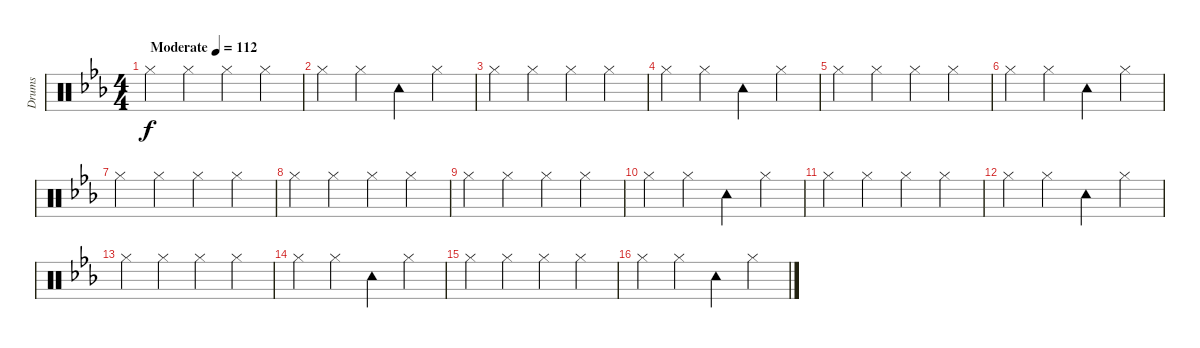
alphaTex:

\track ("Drums" "Drums") {instrument percussion}
\staff {score}
\articulation defaults
\ts (4 4)
\tempo (112 "Moderate")
\clef neutral
\ks eb "Hi-Hat (closed)".4{dy f} "Hi-Hat (closed)".4 "Hi-Hat (closed)".4 "Hi-Hat (closed)".4
|
"Hi-Hat (closed)".4 "Hi-Hat (closed)".4 "Tambourine (hit)".4 "Hi-Hat (closed)".4 |
"Hi-Hat (closed)".4 "Hi-Hat (closed)".4 "Hi-Hat (closed)".4 "Hi-Hat (closed)".4 |
"Hi-Hat (closed)".4 "Hi-Hat (closed)".4 "Tambourine (hit)".4 "Hi-Hat (closed)".4 |
"Hi-Hat (closed)".4 "Hi-Hat (closed)".4 "Hi-Hat (closed)".4 "Hi-Hat (closed)".4 |
"Hi-Hat (closed)".4 "Hi-Hat (closed)".4 "Tambourine (hit)".4 "Hi-Hat (closed)".4 |
"Hi-Hat (closed)".4 "Hi-Hat (closed)".4 "Hi-Hat (closed)".4 "Hi-Hat (closed)".4 |
"Hi-Hat (closed)".4 "Hi-Hat (closed)".4 "Hi-Hat (closed)".4 "Hi-Hat (closed)".4 |
"Hi-Hat (closed)".4 "Hi-Hat (closed)".4 "Hi-Hat (closed)".4 "Hi-Hat (closed)".4 |
"Hi-Hat (closed)".4 "Hi-Hat (closed)".4 "Tambourine (hit)".4 "Hi-Hat (closed)".4 |
"Hi-Hat (closed)".4 "Hi-Hat (closed)".4 "Hi-Hat (closed)".4 "Hi-Hat (closed)".4 |
"Hi-Hat (closed)".4 "Hi-Hat (closed)".4 "Tambourine (hit)".4 "Hi-Hat (closed)".4 |
"Hi-Hat (closed)".4 "Hi-Hat (closed)".4 "Hi-Hat (closed)".4 "Hi-Hat (closed)".4 |
"Hi-Hat (closed)".4 "Hi-Hat (closed)".4 "Tambourine (hit)".4 "Hi-Hat (closed)".4 |
"Hi-Hat (closed)".4 "Hi-Hat (closed)".4 "Hi-Hat (closed)".4 "Hi-Hat (closed)".4 |
"Hi-Hat (closed)".4 "Hi-Hat (closed)".4 "Tambourine (hit)".4 "Hi-Hat (closed)".4
